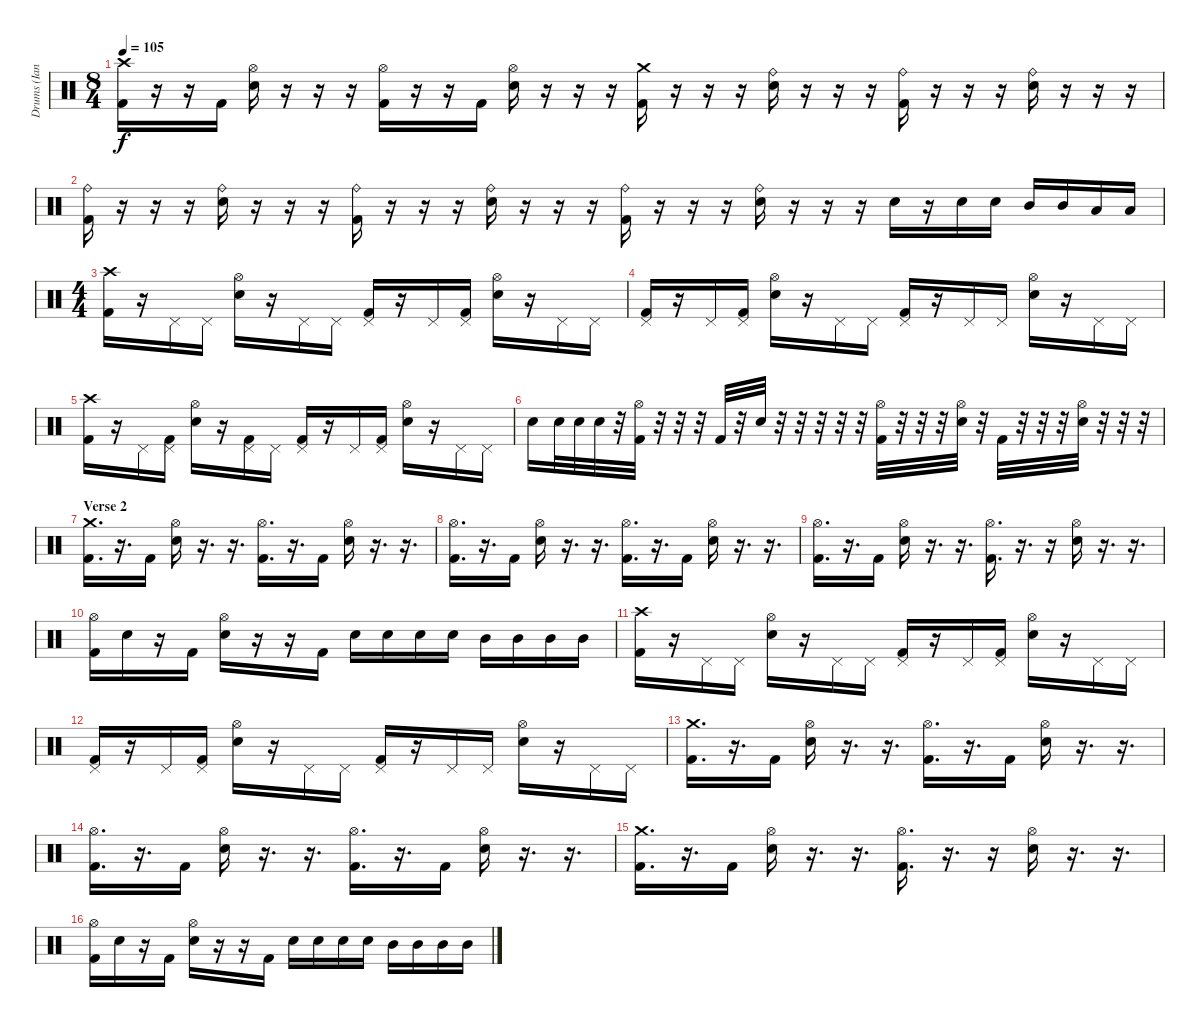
\track ("Drums (Ian Paice)" "Drums (Ian") {instrument percussion}
\staff {score}
\articulation defaults
\ts (8 4)
\tempo 105
\clef neutral
\ks c
("Crash high (hit)" "Kick (hit) 2").16{dy f} r.16 r.16 "Kick (hit) 2".16 ("Hi-Hat (open)" "Electric Snare (hit)").16 r.16 r.16 r.16 ("Hi-Hat (open)" "Kick (hit) 2").16 r.16 r.16 "Kick (hit) 2".16 ("Hi-Hat (open)" "Electric Snare (hit)").16 r.16 r.16 r.16 ("Crash medium (hit)" "Kick (hit) 2").16 r.16 r.16 r.16 ("Ride (bell)" "Electric Snare (hit)").16 r.16 r.16 r.16 ("Ride (bell)" "Kick (hit) 2").16 r.16 r.16 r.16 ("Ride (bell)" "Electric Snare (hit)").16 r.16 r.16 r.16 |
("Ride (bell)" "Kick (hit) 2").16 r.16 r.16 r.16 ("Ride (bell)" "Electric Snare (hit)").16 r.16 r.16 r.16 ("Ride (bell)" "Kick (hit) 2").16 r.16 r.16 r.16 ("Ride (bell)" "Electric Snare (hit)").16 r.16 r.16 r.16 ("Ride (bell)" "Kick (hit) 2").16 r.16 r.16 r.16 ("Ride (bell)" "Electric Snare (hit)").16 r.16 r.16 r.16 "Electric Snare (hit)".16 r.16 "Electric Snare (hit)".16 "Electric Snare (hit)".16 "Mid Tom (hit)".16 "Mid Tom (hit)".16 "Low Tom (hit)".16 "Low Tom (hit)".16 |
\ts (4 4)
("Crash high (hit)" "Kick (hit) 2").16 r.16 "Pedal Hi-Hat (hit)".16 "Pedal Hi-Hat (hit)".16 ("Hi-Hat (open)" "Electric Snare (hit)").16 r.16 "Pedal Hi-Hat (hit)".16 "Pedal Hi-Hat (hit)".16 ("Pedal Hi-Hat (hit)" "Kick (hit) 2").16 r.16 "Pedal Hi-Hat (hit)".16 ("Pedal Hi-Hat (hit)" "Kick (hit) 2").16 ("Hi-Hat (open)" "Electric Snare (hit)").16 r.16 "Pedal Hi-Hat (hit)".16 "Pedal Hi-Hat (hit)".16 |
("Pedal Hi-Hat (hit)" "Kick (hit) 2").16 r.16 "Pedal Hi-Hat (hit)".16 ("Pedal Hi-Hat (hit)" "Kick (hit) 2").16 ("Hi-Hat (open)" "Electric Snare (hit)").16 r.16 "Pedal Hi-Hat (hit)".16 "Pedal Hi-Hat (hit)".16 ("Pedal Hi-Hat (hit)" "Kick (hit) 2").16 r.16 "Pedal Hi-Hat (hit)".16 "Pedal Hi-Hat (hit)".16 ("Hi-Hat (open)" "Electric Snare (hit)").16 r.16 "Pedal Hi-Hat (hit)".16 "Pedal Hi-Hat (hit)".16 |
("Crash high (hit)" "Kick (hit) 2").16 r.16 "Pedal Hi-Hat (hit)".16 ("Pedal Hi-Hat (hit)" "Kick (hit) 2").16 ("Hi-Hat (open)" "Electric Snare (hit)").16 r.16 ("Pedal Hi-Hat (hit)" "Kick (hit) 2").16 "Pedal Hi-Hat (hit)".16 ("Pedal Hi-Hat (hit)" "Kick (hit) 2").16 r.16 "Pedal Hi-Hat (hit)".16 ("Pedal Hi-Hat (hit)" "Kick (hit) 2").16 ("Hi-Hat (open)" "Electric Snare (hit)").16 r.16 "Pedal Hi-Hat (hit)".16 "Pedal Hi-Hat (hit)".16 |
"Electric Snare (hit)".16 "Electric Snare (hit)".32 "Electric Snare (hit)".32 "Electric Snare (hit)".32 r.32 ("Hi-Hat (open)" "Kick (hit) 2").32 r.32 r.32 r.32 "Kick (hit) 2".32 r.32 "Electric Snare (hit)".32 r.32 r.32 r.32 r.32 r.32 ("Hi-Hat (open)" "Kick (hit) 2").32 r.32 r.32 r.32 ("Hi-Hat (open)" "Electric Snare (hit)").32 r.32 "Kick (hit) 2".32 r.32 r.32 r.32 ("Hi-Hat (open)" "Electric Snare (hit)").32 r.32 r.32 r.32 |
\section ("" "Verse 2")
("Crash medium (hit)" "Kick (hit) 2").16{d} r.16{d} "Kick (hit) 2".16 ("Hi-Hat (open)" "Electric Snare (hit)").16 r.16{d} r.16{d} ("Hi-Hat (open)" "Kick (hit) 2").16{d} r.16{d} "Kick (hit) 2".16 ("Hi-Hat (open)" "Electric Snare (hit)").16 r.16{d} r.16{d} |
("Hi-Hat (open)" "Kick (hit) 2").16{d} r.16{d} "Kick (hit) 2".16 ("Hi-Hat (open)" "Electric Snare (hit)").16 r.16{d} r.16{d} ("Hi-Hat (open)" "Kick (hit) 2").16{d} r.16{d} "Kick (hit) 2".16 ("Hi-Hat (open)" "Electric Snare (hit)").16 r.16{d} r.16{d} |
("Hi-Hat (open)" "Kick (hit) 2").16{d} r.16{d} "Kick (hit) 2".16 ("Hi-Hat (open)" "Electric Snare (hit)").16 r.16{d} r.16{d} ("Hi-Hat (open)" "Kick (hit) 2").16{d} r.16{d} r.16 ("Hi-Hat (open)" "Electric Snare (hit)").16 r.16{d} r.16{d} |
("Hi-Hat (open)" "Kick (hit) 2").16 "Electric Snare (hit)".16 r.16 "Kick (hit) 2".16 ("Hi-Hat (open)" "Electric Snare (hit)").16 r.16 r.16 "Kick (hit) 2".16 "Electric Snare (hit)".16 "Electric Snare (hit)".16 "Electric Snare (hit)".16 "Electric Snare (hit)".16 "Mid Tom (hit)".16 "Mid Tom (hit)".16 "Mid Tom (hit)".16 "Mid Tom (hit)".16 |
("Crash high (hit)" "Kick (hit) 2").16 r.16 "Pedal Hi-Hat (hit)".16 "Pedal Hi-Hat (hit)".16 ("Hi-Hat (open)" "Electric Snare (hit)").16 r.16 "Pedal Hi-Hat (hit)".16 "Pedal Hi-Hat (hit)".16 ("Pedal Hi-Hat (hit)" "Kick (hit) 2").16 r.16 "Pedal Hi-Hat (hit)".16 ("Pedal Hi-Hat (hit)" "Kick (hit) 2").16 ("Hi-Hat (open)" "Electric Snare (hit)").16 r.16 "Pedal Hi-Hat (hit)".16 "Pedal Hi-Hat (hit)".16 |
("Pedal Hi-Hat (hit)" "Kick (hit) 2").16 r.16 "Pedal Hi-Hat (hit)".16 ("Pedal Hi-Hat (hit)" "Kick (hit) 2").16 ("Hi-Hat (open)" "Electric Snare (hit)").16 r.16 "Pedal Hi-Hat (hit)".16 "Pedal Hi-Hat (hit)".16 ("Pedal Hi-Hat (hit)" "Kick (hit) 2").16 r.16 "Pedal Hi-Hat (hit)".16 "Pedal Hi-Hat (hit)".16 ("Hi-Hat (open)" "Electric Snare (hit)").16 r.16 "Pedal Hi-Hat (hit)".16 "Pedal Hi-Hat (hit)".16 |
("Crash medium (hit)" "Kick (hit) 2").16{d} r.16{d} "Kick (hit) 2".16 ("Hi-Hat (open)" "Electric Snare (hit)").16 r.16{d} r.16{d} ("Hi-Hat (open)" "Kick (hit) 2").16{d} r.16{d} "Kick (hit) 2".16 ("Hi-Hat (open)" "Electric Snare (hit)").16 r.16{d} r.16{d} |
("Hi-Hat (open)" "Kick (hit) 2").16{d} r.16{d} "Kick (hit) 2".16 ("Hi-Hat (open)" "Electric Snare (hit)").16 r.16{d} r.16{d} ("Hi-Hat (open)" "Kick (hit) 2").16{d} r.16{d} "Kick (hit) 2".16 ("Hi-Hat (open)" "Electric Snare (hit)").16 r.16{d} r.16{d} |
("Crash medium (hit)" "Kick (hit) 2").16{d} r.16{d} "Kick (hit) 2".16 ("Hi-Hat (open)" "Electric Snare (hit)").16 r.16{d} r.16{d} ("Hi-Hat (open)" "Kick (hit) 2").16{d} r.16{d} r.16 ("Hi-Hat (open)" "Electric Snare (hit)").16 r.16{d} r.16{d} |
("Hi-Hat (open)" "Kick (hit) 2").16 "Electric Snare (hit)".16 r.16 "Kick (hit) 2".16 ("Hi-Hat (open)" "Electric Snare (hit)").16 r.16 r.16 "Kick (hit) 2".16 "Electric Snare (hit)".16 "Electric Snare (hit)".16 "Electric Snare (hit)".16 "Electric Snare (hit)".16 "Mid Tom (hit)".16 "Mid Tom (hit)".16 "Mid Tom (hit)".16 "Mid Tom (hit)".16
